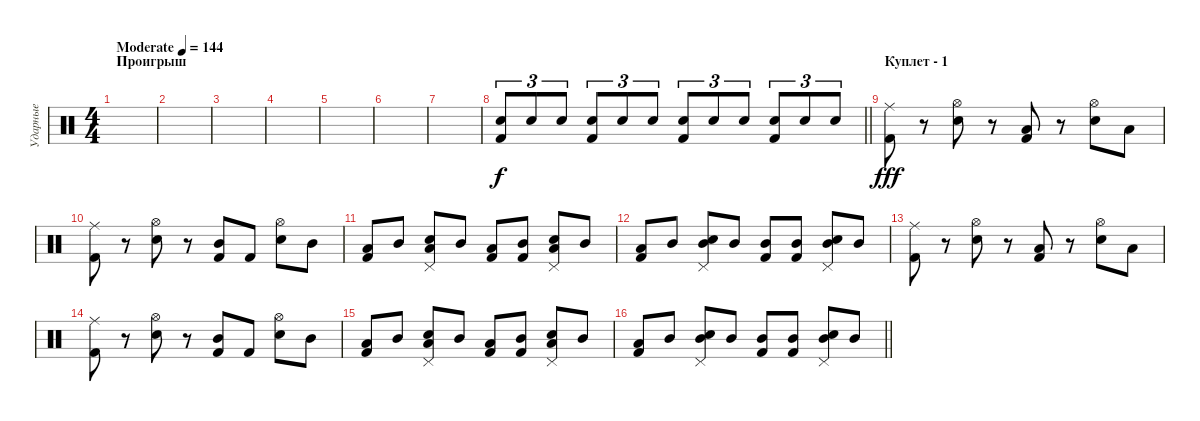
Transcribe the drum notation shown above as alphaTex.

\track ("Ударные" "Ударные") {instrument percussion}
\staff {score}
\articulation defaults
\ts (4 4)
\section ("" "Проигрыш ")
\tempo (144 "Moderate")
\clef neutral
\ks c
|
|
|
|
|
|
|
\barLineRight lightlight
("Snare (hit) 2" "Kick (hit) 2").8{tu (3 2)} "Snare (hit) 2".8{tu (3 2)} "Snare (hit) 2".8{tu (3 2)} ("Kick (hit) 2" "Snare (hit) 2").8{tu (3 2)} "Snare (hit) 2".8{tu (3 2)} "Snare (hit) 2".8{tu (3 2)} ("Kick (hit) 2" "Snare (hit) 2").8{tu (3 2)} "Snare (hit) 2".8{tu (3 2)} "Snare (hit) 2".8{tu (3 2)} ("Kick (hit) 2" "Snare (hit) 2").8{tu (3 2)} "Snare (hit) 2".8{tu (3 2)} "Snare (hit) 2".8{tu (3 2)} |
\section ("" "Куплет - 1")
("Ride (middle)" "Kick (hit) 2").8{dy fff} r.8 ("Snare (hit) 2" "Hi-Hat (open)").8 r.8 ("Kick (hit) 2" "Low Tom (hit)").8 r.8 ("Snare (hit) 2" "Hi-Hat (open)").8 "Low Tom (hit)".8 |
("Ride (middle)" "Kick (hit) 2").8 r.8 ("Snare (hit) 2" "Hi-Hat (open)").8 r.8 ("Kick (hit) 2" "Mid Tom (hit)").8 "Kick (hit) 2".8 ("Snare (hit) 2" "Hi-Hat (open)").8 "Mid Tom (hit)".8 |
("Kick (hit) 2" "Low Floor Tom (hit)").8 "Mid Tom (hit)".8 ("Snare (hit) 2" "Low Floor Tom (hit)" "Pedal Hi-Hat (hit)").8 "Mid Tom (hit)".8 ("Kick (hit) 2" "Low Floor Tom (hit)").8 ("Kick (hit) 2" "Mid Tom (hit)").8 ("Snare (hit) 2" "Low Floor Tom (hit)" "Pedal Hi-Hat (hit)").8 "Mid Tom (hit)".8 |
("Kick (hit) 2" "Low Floor Tom (hit)").8 "Mid Tom (hit)".8 ("Snare (hit) 2" "Mid Tom (hit)" "Pedal Hi-Hat (hit)").8 "Mid Tom (hit)".8 ("Kick (hit) 2" "Mid Tom (hit)").8 ("Kick (hit) 2" "Mid Tom (hit)").8 ("Snare (hit) 2" "Mid Tom (hit)" "Pedal Hi-Hat (hit)").8 "Mid Tom (hit)".8 |
("Ride (middle)" "Kick (hit) 2").8 r.8 ("Snare (hit) 2" "Hi-Hat (open)").8 r.8 ("Kick (hit) 2" "Low Tom (hit)").8 r.8 ("Snare (hit) 2" "Hi-Hat (open)").8 "Low Tom (hit)".8 |
("Ride (middle)" "Kick (hit) 2").8 r.8 ("Snare (hit) 2" "Hi-Hat (open)").8 r.8 ("Kick (hit) 2" "Mid Tom (hit)").8 "Kick (hit) 2".8 ("Snare (hit) 2" "Hi-Hat (open)").8 "Mid Tom (hit)".8 |
("Kick (hit) 2" "Low Floor Tom (hit)").8 "Mid Tom (hit)".8 ("Snare (hit) 2" "Low Floor Tom (hit)" "Pedal Hi-Hat (hit)").8 "Mid Tom (hit)".8 ("Kick (hit) 2" "Low Floor Tom (hit)").8 ("Kick (hit) 2" "Mid Tom (hit)").8 ("Snare (hit) 2" "Low Floor Tom (hit)" "Pedal Hi-Hat (hit)").8 "Mid Tom (hit)".8 |
\barLineRight lightlight
("Kick (hit) 2" "Low Floor Tom (hit)").8 "Mid Tom (hit)".8 ("Snare (hit) 2" "Mid Tom (hit)" "Pedal Hi-Hat (hit)").8 "Mid Tom (hit)".8 ("Kick (hit) 2" "Mid Tom (hit)").8 ("Kick (hit) 2" "Mid Tom (hit)").8 ("Snare (hit) 2" "Mid Tom (hit)" "Pedal Hi-Hat (hit)").8 "Mid Tom (hit)".8
